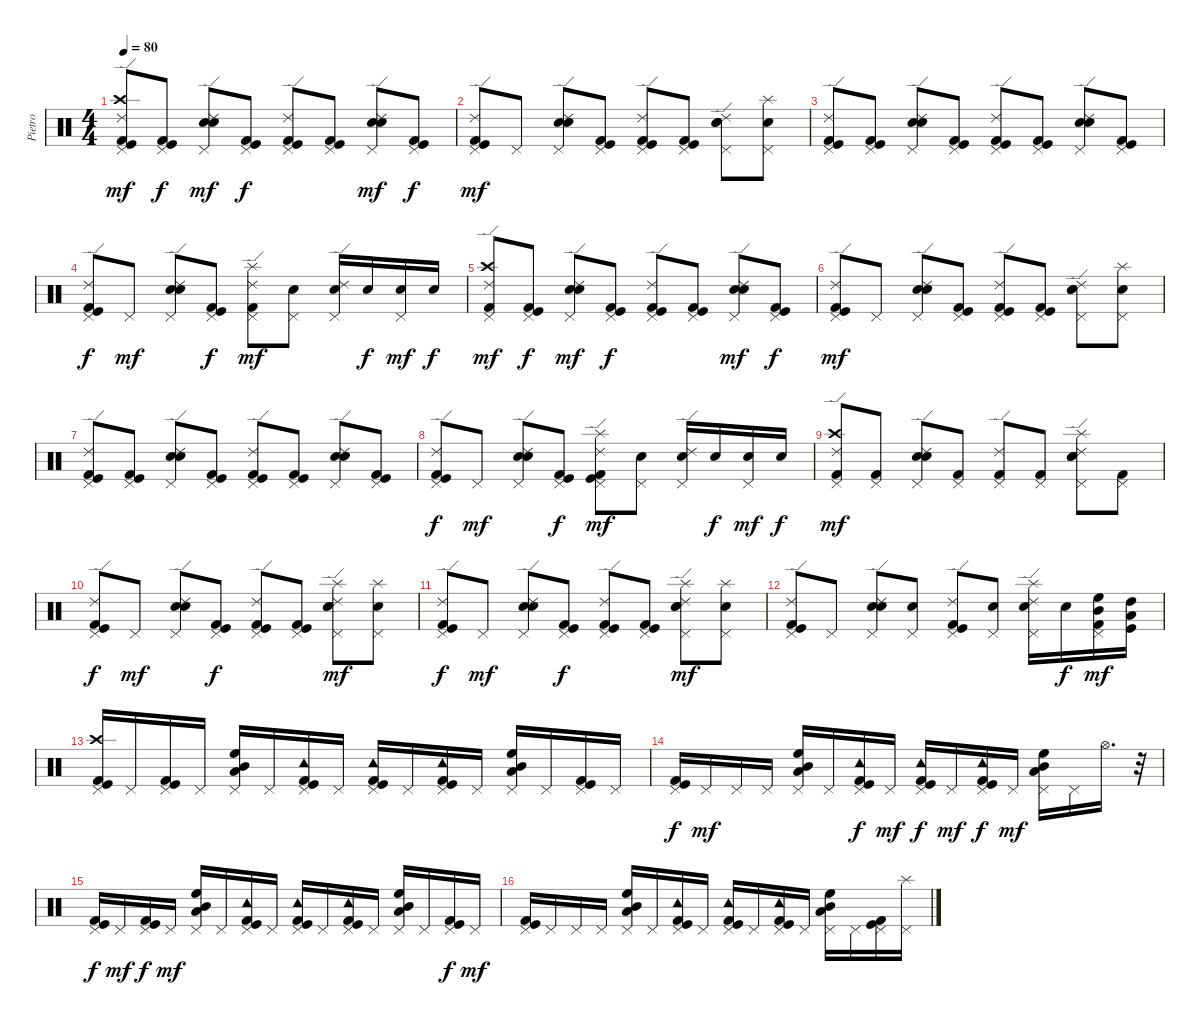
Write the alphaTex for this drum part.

\track ("Pietro" "Pietro") {instrument percussion}
\staff {score}
\articulation defaults
\ts (4 4)
\tempo 80
\clef neutral
\ks c
("Pedal Hi-Hat (hit)" "Ride (edge) 2" "Crash high (hit)" "Kick (hit)" "Kick (hit) 2").8{dy mf} ("Pedal Hi-Hat (hit)" "Kick (hit)" "Kick (hit) 2").8{dy f} ("Pedal Hi-Hat (hit)" "Ride (edge) 2" "Snare (hit) 2" "Electric Snare (hit)").8{dy mf} ("Pedal Hi-Hat (hit)" "Kick (hit)" "Kick (hit) 2").8{dy f} ("Pedal Hi-Hat (hit)" "Ride (edge) 2" "Kick (hit)" "Kick (hit) 2").8 ("Pedal Hi-Hat (hit)" "Kick (hit)" "Kick (hit) 2").8 ("Pedal Hi-Hat (hit)" "Ride (edge) 2" "Snare (hit) 2" "Electric Snare (hit)").8{dy mf} ("Pedal Hi-Hat (hit)" "Kick (hit)" "Kick (hit) 2").8{dy f} |
("Pedal Hi-Hat (hit)" "Ride (edge) 2" "Kick (hit)" "Kick (hit) 2").8{dy mf} "Pedal Hi-Hat (hit)".8 ("Pedal Hi-Hat (hit)" "Ride (edge) 2" "Snare (hit) 2" "Electric Snare (hit)").8 ("Pedal Hi-Hat (hit)" "Kick (hit)" "Kick (hit) 2").8 ("Pedal Hi-Hat (hit)" "Ride (edge) 2" "Kick (hit)" "Kick (hit) 2").8 ("Pedal Hi-Hat (hit)" "Kick (hit)" "Kick (hit) 2").8 ("Pedal Hi-Hat (hit)" "Ride (edge) 2" "Snare (hit) 2" "Electric Snare (hit)").8 ("Pedal Hi-Hat (hit)" "Splash (hit)" "Snare (hit) 2").8 |
("Pedal Hi-Hat (hit)" "Ride (edge) 2" "Kick (hit)" "Kick (hit) 2").8 ("Pedal Hi-Hat (hit)" "Kick (hit)" "Kick (hit) 2").8 ("Pedal Hi-Hat (hit)" "Ride (edge) 2" "Snare (hit) 2" "Electric Snare (hit)").8 ("Pedal Hi-Hat (hit)" "Kick (hit)" "Kick (hit) 2").8 ("Pedal Hi-Hat (hit)" "Ride (edge) 2" "Kick (hit)" "Kick (hit) 2").8 ("Pedal Hi-Hat (hit)" "Kick (hit)" "Kick (hit) 2").8 ("Pedal Hi-Hat (hit)" "Ride (edge) 2" "Snare (hit) 2" "Electric Snare (hit)").8 ("Pedal Hi-Hat (hit)" "Kick (hit)" "Kick (hit) 2").8 |
("Pedal Hi-Hat (hit)" "Ride (edge) 2" "Kick (hit)" "Kick (hit) 2").8{dy f} "Pedal Hi-Hat (hit)".8{dy mf} ("Pedal Hi-Hat (hit)" "Ride (edge) 2" "Snare (hit) 2" "Electric Snare (hit)").8 ("Pedal Hi-Hat (hit)" "Kick (hit)" "Kick (hit) 2").8{dy f} ("Pedal Hi-Hat (hit)" "Ride (edge) 2" "Splash (hit)" "Kick (hit) 2").8{dy mf} ("Pedal Hi-Hat (hit)" "Snare (hit) 2").8 ("Pedal Hi-Hat (hit)" "Ride (edge) 2" "Snare (hit) 2").16 "Snare (hit) 2".16{dy f} ("Pedal Hi-Hat (hit)" "Snare (hit) 2").16{dy mf} "Snare (hit) 2".16{dy f} |
("Pedal Hi-Hat (hit)" "Ride (edge) 2" "Crash high (hit)" "Kick (hit) 2").8{dy mf} ("Pedal Hi-Hat (hit)" "Kick (hit)" "Kick (hit) 2").8{dy f} ("Pedal Hi-Hat (hit)" "Ride (edge) 2" "Snare (hit) 2" "Electric Snare (hit)").8{dy mf} ("Pedal Hi-Hat (hit)" "Kick (hit)" "Kick (hit) 2").8{dy f} ("Pedal Hi-Hat (hit)" "Ride (edge) 2" "Kick (hit)" "Kick (hit) 2").8 ("Pedal Hi-Hat (hit)" "Kick (hit)" "Kick (hit) 2").8 ("Pedal Hi-Hat (hit)" "Ride (edge) 2" "Snare (hit) 2" "Electric Snare (hit)").8{dy mf} ("Pedal Hi-Hat (hit)" "Kick (hit)" "Kick (hit) 2").8{dy f} |
("Pedal Hi-Hat (hit)" "Ride (edge) 2" "Kick (hit)" "Kick (hit) 2").8{dy mf} "Pedal Hi-Hat (hit)".8 ("Pedal Hi-Hat (hit)" "Ride (edge) 2" "Snare (hit) 2" "Electric Snare (hit)").8 ("Pedal Hi-Hat (hit)" "Kick (hit)" "Kick (hit) 2").8 ("Pedal Hi-Hat (hit)" "Ride (edge) 2" "Kick (hit)" "Kick (hit) 2").8 ("Pedal Hi-Hat (hit)" "Kick (hit)" "Kick (hit) 2").8 ("Pedal Hi-Hat (hit)" "Ride (edge) 2" "Snare (hit) 2" "Electric Snare (hit)").8 ("Pedal Hi-Hat (hit)" "Splash (hit)" "Snare (hit) 2").8 |
("Pedal Hi-Hat (hit)" "Ride (edge) 2" "Kick (hit)" "Kick (hit) 2").8 ("Pedal Hi-Hat (hit)" "Kick (hit)" "Kick (hit) 2").8 ("Pedal Hi-Hat (hit)" "Ride (edge) 2" "Snare (hit) 2" "Electric Snare (hit)").8 ("Pedal Hi-Hat (hit)" "Kick (hit)" "Kick (hit) 2").8 ("Pedal Hi-Hat (hit)" "Ride (edge) 2" "Kick (hit)" "Kick (hit) 2").8 ("Pedal Hi-Hat (hit)" "Kick (hit)" "Kick (hit) 2").8 ("Pedal Hi-Hat (hit)" "Ride (edge) 2" "Snare (hit) 2" "Electric Snare (hit)").8 ("Pedal Hi-Hat (hit)" "Kick (hit)" "Kick (hit) 2").8 |
("Pedal Hi-Hat (hit)" "Ride (edge) 2" "Kick (hit)" "Kick (hit) 2").8{dy f} "Pedal Hi-Hat (hit)".8{dy mf} ("Pedal Hi-Hat (hit)" "Ride (edge) 2" "Snare (hit) 2" "Electric Snare (hit)").8 ("Pedal Hi-Hat (hit)" "Kick (hit)" "Kick (hit) 2").8{dy f} ("Pedal Hi-Hat (hit)" "Ride (edge) 2" "Splash (hit)" "Kick (hit)" "Kick (hit) 2").8{dy mf} ("Pedal Hi-Hat (hit)" "Snare (hit) 2").8 ("Pedal Hi-Hat (hit)" "Ride (edge) 2" "Snare (hit) 2").16 "Snare (hit) 2".16{dy f} ("Pedal Hi-Hat (hit)" "Snare (hit) 2").16{dy mf} "Snare (hit) 2".16{dy f} |
("Pedal Hi-Hat (hit)" "Ride (edge) 2" "Crash high (hit)" "Kick (hit) 2").8{dy mf} ("Pedal Hi-Hat (hit)" "Kick (hit) 2").8 ("Pedal Hi-Hat (hit)" "Ride (edge) 2" "Snare (hit) 2" "Electric Snare (hit)").8 ("Pedal Hi-Hat (hit)" "Kick (hit) 2").8 ("Pedal Hi-Hat (hit)" "Ride (edge) 2" "Kick (hit) 2").8 ("Pedal Hi-Hat (hit)" "Kick (hit) 2").8 ("Pedal Hi-Hat (hit)" "Ride (edge) 2" "Snare (hit) 2" "Electric Snare (hit)" "Splash (hit)").8 ("Pedal Hi-Hat (hit)" "Kick (hit) 2").8 |
("Pedal Hi-Hat (hit)" "Ride (edge) 2" "Kick (hit)" "Kick (hit) 2").8{dy f} "Pedal Hi-Hat (hit)".8{dy mf} ("Pedal Hi-Hat (hit)" "Ride (edge) 2" "Snare (hit) 2" "Electric Snare (hit)").8 ("Pedal Hi-Hat (hit)" "Kick (hit)" "Kick (hit) 2").8{dy f} ("Pedal Hi-Hat (hit)" "Ride (edge) 2" "Kick (hit)" "Kick (hit) 2").8 ("Pedal Hi-Hat (hit)" "Kick (hit)" "Kick (hit) 2").8 ("Pedal Hi-Hat (hit)" "Ride (edge) 2" "Snare (hit) 2" "Electric Snare (hit)" "Splash (hit)").8{dy mf} ("Pedal Hi-Hat (hit)" "Snare (hit) 2" "Splash (hit)").8 |
("Pedal Hi-Hat (hit)" "Ride (edge) 2" "Kick (hit)" "Kick (hit) 2").8{dy f} "Pedal Hi-Hat (hit)".8{dy mf} ("Pedal Hi-Hat (hit)" "Ride (edge) 2" "Electric Snare (hit)" "Snare (hit) 2").8 ("Pedal Hi-Hat (hit)" "Kick (hit)" "Kick (hit) 2").8{dy f} ("Pedal Hi-Hat (hit)" "Ride (edge) 2" "Kick (hit)" "Kick (hit) 2").8 ("Pedal Hi-Hat (hit)" "Kick (hit)" "Kick (hit) 2").8 ("Pedal Hi-Hat (hit)" "Ride (edge) 2" "Snare (hit) 2" "Electric Snare (hit)" "Splash (hit)").8{dy mf} ("Pedal Hi-Hat (hit)" "Snare (hit) 2" "Splash (hit)").8 |
("Pedal Hi-Hat (hit)" "Ride (edge) 2" "Kick (hit)" "Kick (hit) 2").8 "Pedal Hi-Hat (hit)".8 ("Pedal Hi-Hat (hit)" "Ride (edge) 2" "Snare (hit) 2" "Electric Snare (hit)").8 ("Pedal Hi-Hat (hit)" "Snare (hit) 2").8 ("Pedal Hi-Hat (hit)" "Ride (edge) 2" "Kick (hit)" "Kick (hit) 2").8 ("Pedal Hi-Hat (hit)" "Snare (hit) 2").8 ("Pedal Hi-Hat (hit)" "Ride (edge) 2" "Snare (hit) 2" "Splash (hit)").16 "Snare (hit) 2".16{dy f} ("Pedal Hi-Hat (hit)" "High Floor Tom (hit)" "Mid Tom (hit)" "Kick (hit) 2").16{dy mf} ("High Tom (hit)" "Low Tom (hit)" "Kick (hit)").16 |
("Pedal Hi-Hat (hit)" "Crash high (hit)" "Kick (hit)" "Kick (hit) 2").16 "Pedal Hi-Hat (hit)".16 ("Pedal Hi-Hat (hit)" "Kick (hit)" "Kick (hit) 2").16 "Pedal Hi-Hat (hit)".16 ("Pedal Hi-Hat (hit)" "High Floor Tom (hit)" "Mid Tom (hit)" "Low Tom (hit)").16 "Pedal Hi-Hat (hit)".16 ("Pedal Hi-Hat (hit)" "Tambourine (hit)" "Kick (hit)" "Kick (hit) 2").16 "Pedal Hi-Hat (hit)".16 ("Pedal Hi-Hat (hit)" "Tambourine (hit)" "Kick (hit)" "Kick (hit) 2").16 "Pedal Hi-Hat (hit)".16 ("Pedal Hi-Hat (hit)" "Tambourine (hit)" "Kick (hit)" "Kick (hit) 2").16 "Pedal Hi-Hat (hit)".16 ("Pedal Hi-Hat (hit)" "High Floor Tom (hit)" "Mid Tom (hit)" "Low Tom (hit)").16 "Pedal Hi-Hat (hit)".16 ("Pedal Hi-Hat (hit)" "Kick (hit)" "Kick (hit) 2").16 "Pedal Hi-Hat (hit)".16 |
("Pedal Hi-Hat (hit)" "Kick (hit)" "Kick (hit) 2").16{dy f} "Pedal Hi-Hat (hit)".16{dy mf} "Pedal Hi-Hat (hit)".16 "Pedal Hi-Hat (hit)".16 ("Pedal Hi-Hat (hit)" "High Floor Tom (hit)" "Mid Tom (hit)" "Low Tom (hit)").16 "Pedal Hi-Hat (hit)".16 ("Pedal Hi-Hat (hit)" "Tambourine (hit)" "Kick (hit)" "Kick (hit) 2").16{dy f} "Pedal Hi-Hat (hit)".16{dy mf} ("Pedal Hi-Hat (hit)" "Tambourine (hit)" "Kick (hit)" "Kick (hit) 2").16{dy f} "Pedal Hi-Hat (hit)".16{dy mf} ("Pedal Hi-Hat (hit)" "Tambourine (hit)" "Kick (hit)" "Kick (hit) 2").16{dy f} "Pedal Hi-Hat (hit)".16{dy mf} ("Pedal Hi-Hat (hit)" "High Floor Tom (hit)" "Mid Tom (hit)" "Low Tom (hit)").16 "Pedal Hi-Hat (hit)".16 "Hi-Hat (open)".16{d} r.32 |
("Pedal Hi-Hat (hit)" "Kick (hit)" "Kick (hit) 2").16{dy f} "Pedal Hi-Hat (hit)".16{dy mf} ("Pedal Hi-Hat (hit)" "Kick (hit)" "Kick (hit) 2").16{dy f} "Pedal Hi-Hat (hit)".16{dy mf} ("Pedal Hi-Hat (hit)" "Mid Tom (hit)" "High Floor Tom (hit)" "Low Tom (hit)").16 "Pedal Hi-Hat (hit)".16 ("Pedal Hi-Hat (hit)" "Tambourine (hit)" "Kick (hit)" "Kick (hit) 2").16 "Pedal Hi-Hat (hit)".16 ("Pedal Hi-Hat (hit)" "Tambourine (hit)" "Kick (hit)" "Kick (hit) 2").16 "Pedal Hi-Hat (hit)".16 ("Pedal Hi-Hat (hit)" "Tambourine (hit)" "Kick (hit)" "Kick (hit) 2").16 "Pedal Hi-Hat (hit)".16 ("Pedal Hi-Hat (hit)" "High Floor Tom (hit)" "Mid Tom (hit)" "Low Tom (hit)").16 "Pedal Hi-Hat (hit)".16 ("Pedal Hi-Hat (hit)" "Kick (hit)" "Kick (hit) 2").16{dy f} "Pedal Hi-Hat (hit)".16{dy mf} |
("Pedal Hi-Hat (hit)" "Kick (hit)" "Kick (hit) 2").16 "Pedal Hi-Hat (hit)".16 "Pedal Hi-Hat (hit)".16 "Pedal Hi-Hat (hit)".16 ("Pedal Hi-Hat (hit)" "High Floor Tom (hit)" "Mid Tom (hit)" "Low Tom (hit)").16 "Pedal Hi-Hat (hit)".16 ("Pedal Hi-Hat (hit)" "Tambourine (hit)" "Kick (hit)" "Kick (hit) 2").16 "Pedal Hi-Hat (hit)".16 ("Pedal Hi-Hat (hit)" "Tambourine (hit)" "Kick (hit)" "Kick (hit) 2").16 "Pedal Hi-Hat (hit)".16 ("Pedal Hi-Hat (hit)" "Tambourine (hit)" "Kick (hit)" "Kick (hit) 2").16 "Pedal Hi-Hat (hit)".16 ("Pedal Hi-Hat (hit)" "Mid Tom (hit)" "High Floor Tom (hit)" "Low Tom (hit)").16 "Pedal Hi-Hat (hit)".16 ("Pedal Hi-Hat (hit)" "Kick (hit)" "Kick (hit) 2").16 ("Pedal Hi-Hat (hit)" "Splash (hit)").16
